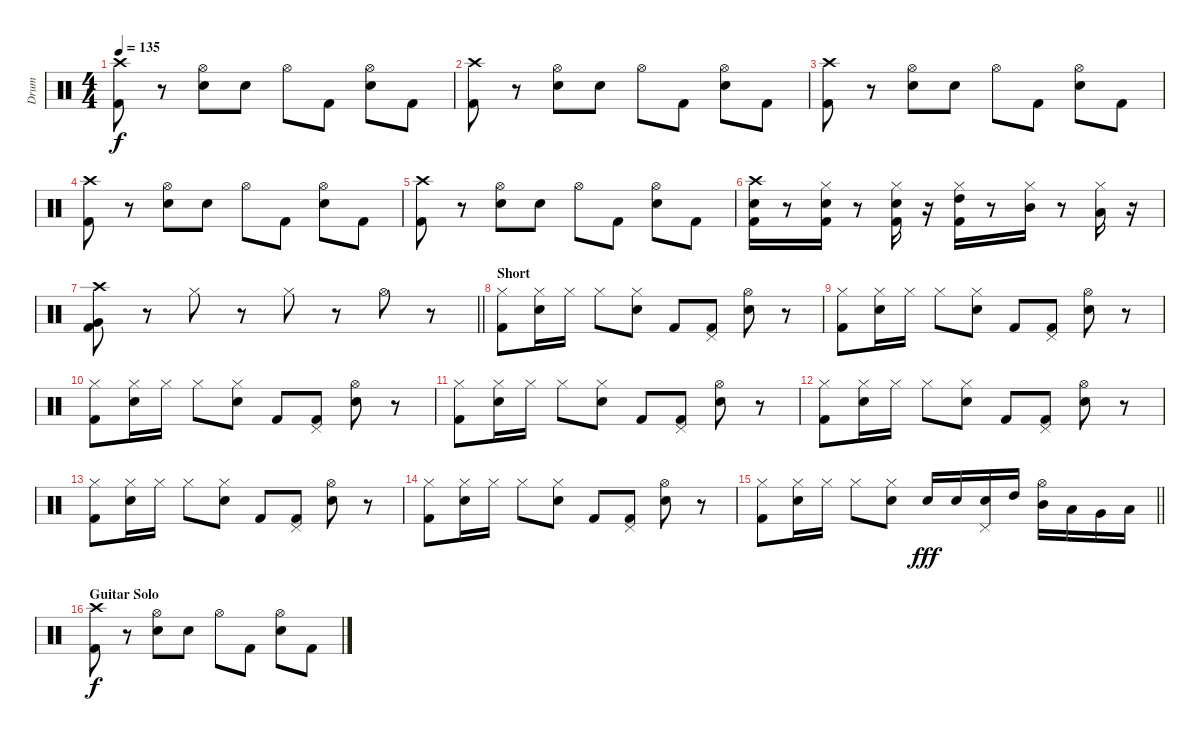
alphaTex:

\track ("Drum" "Drum") {instrument percussion}
\staff {score}
\articulation defaults
\ts (4 4)
\tempo 135
\clef neutral
\ks c
("Crash high (hit)" "Kick (hit) 2").8{dy f} r.8 ("Electric Snare (hit)" "Hi-Hat (open)").8 "Electric Snare (hit)".8 "Hi-Hat (open)".8 "Kick (hit) 2".8 ("Electric Snare (hit)" "Hi-Hat (open)").8 "Kick (hit) 2".8 |
("Crash high (hit)" "Kick (hit) 2").8 r.8 ("Electric Snare (hit)" "Hi-Hat (open)").8 "Electric Snare (hit)".8 "Hi-Hat (open)".8 "Kick (hit) 2".8 ("Electric Snare (hit)" "Hi-Hat (open)").8 "Kick (hit) 2".8 |
("Crash high (hit)" "Kick (hit) 2").8 r.8 ("Electric Snare (hit)" "Hi-Hat (open)").8 "Electric Snare (hit)".8 "Hi-Hat (open)".8 "Kick (hit) 2".8 ("Electric Snare (hit)" "Hi-Hat (open)").8 "Kick (hit) 2".8 |
("Crash high (hit)" "Kick (hit) 2").8 r.8 ("Electric Snare (hit)" "Hi-Hat (open)").8 "Electric Snare (hit)".8 "Hi-Hat (open)".8 "Kick (hit) 2".8 ("Electric Snare (hit)" "Hi-Hat (open)").8 "Kick (hit) 2".8 |
("Crash high (hit)" "Kick (hit) 2").8 r.8 ("Electric Snare (hit)" "Hi-Hat (open)").8 "Electric Snare (hit)".8 "Hi-Hat (open)".8 "Kick (hit) 2".8 ("Electric Snare (hit)" "Hi-Hat (open)").8 "Kick (hit) 2".8 |
("Electric Snare (hit)" "Crash high (hit)" "Kick (hit) 2").16 r.8 ("Electric Snare (hit)" "Hi-Hat (closed)" "Kick (hit) 2").16 r.8 ("Electric Snare (hit)" "Hi-Hat (closed)" "Kick (hit) 2").16 r.16 ("Hi-Hat (closed)" "High Tom (hit)" "Kick (hit) 2").16 r.8 ("Mid Tom (hit)" "Hi-Hat (closed)").16 r.8 ("Hi-Hat (closed)" "Low Tom (hit)").16 r.16 |
\barLineRight lightlight
("Crash high (hit)" "Very Low Tom (hit)" "Kick (hit) 2").8 r.8 "Hi-Hat (closed)".8 r.8 "Hi-Hat (closed)".8 r.8 "Hi-Hat (open)".8 r.8 |
\section ("" "Short")
("Hi-Hat (closed)" "Kick (hit) 2").8 ("Electric Snare (hit)" "Hi-Hat (closed)").16 "Hi-Hat (closed)".16 "Hi-Hat (closed)".8 ("Electric Snare (hit)" "Hi-Hat (closed)").8 "Kick (hit) 2".8 ("Pedal Hi-Hat (hit)" "Kick (hit) 2").8 ("Electric Snare (hit)" "Hi-Hat (open)").8 r.8 |
("Hi-Hat (closed)" "Kick (hit) 2").8 ("Electric Snare (hit)" "Hi-Hat (closed)").16 "Hi-Hat (closed)".16 "Hi-Hat (closed)".8 ("Electric Snare (hit)" "Hi-Hat (closed)").8 "Kick (hit) 2".8 ("Pedal Hi-Hat (hit)" "Kick (hit) 2").8 ("Electric Snare (hit)" "Hi-Hat (open)").8 r.8 |
("Hi-Hat (closed)" "Kick (hit) 2").8 ("Electric Snare (hit)" "Hi-Hat (closed)").16 "Hi-Hat (closed)".16 "Hi-Hat (closed)".8 ("Electric Snare (hit)" "Hi-Hat (closed)").8 "Kick (hit) 2".8 ("Pedal Hi-Hat (hit)" "Kick (hit) 2").8 ("Electric Snare (hit)" "Hi-Hat (open)").8 r.8 |
("Hi-Hat (closed)" "Kick (hit) 2").8 ("Electric Snare (hit)" "Hi-Hat (closed)").16 "Hi-Hat (closed)".16 "Hi-Hat (closed)".8 ("Electric Snare (hit)" "Hi-Hat (closed)").8 "Kick (hit) 2".8 ("Pedal Hi-Hat (hit)" "Kick (hit) 2").8 ("Electric Snare (hit)" "Hi-Hat (open)").8 r.8 |
("Hi-Hat (closed)" "Kick (hit) 2").8 ("Electric Snare (hit)" "Hi-Hat (closed)").16 "Hi-Hat (closed)".16 "Hi-Hat (closed)".8 ("Electric Snare (hit)" "Hi-Hat (closed)").8 "Kick (hit) 2".8 ("Pedal Hi-Hat (hit)" "Kick (hit) 2").8 ("Electric Snare (hit)" "Hi-Hat (open)").8 r.8 |
("Hi-Hat (closed)" "Kick (hit) 2").8 ("Electric Snare (hit)" "Hi-Hat (closed)").16 "Hi-Hat (closed)".16 "Hi-Hat (closed)".8 ("Electric Snare (hit)" "Hi-Hat (closed)").8 "Kick (hit) 2".8 ("Pedal Hi-Hat (hit)" "Kick (hit) 2").8 ("Electric Snare (hit)" "Hi-Hat (open)").8 r.8 |
("Hi-Hat (closed)" "Kick (hit) 2").8 ("Electric Snare (hit)" "Hi-Hat (closed)").16 "Hi-Hat (closed)".16 "Hi-Hat (closed)".8 ("Electric Snare (hit)" "Hi-Hat (closed)").8 "Kick (hit) 2".8 ("Pedal Hi-Hat (hit)" "Kick (hit) 2").8 ("Electric Snare (hit)" "Hi-Hat (open)").8 r.8 |
\barLineRight lightlight
("Hi-Hat (closed)" "Kick (hit) 2").8 ("Electric Snare (hit)" "Hi-Hat (closed)").16 "Hi-Hat (closed)".16 "Hi-Hat (closed)".8 ("Electric Snare (hit)" "Hi-Hat (closed)").8 "Electric Snare (hit)".16{dy fff} "Electric Snare (hit)".16 ("Electric Snare (hit)" "Pedal Hi-Hat (hit)").16 "High Tom (hit)".16 ("Mid Tom (hit)" "Hi-Hat (open)").16 "Low Tom (hit)".16 "Very Low Tom (hit)".16 "Low Floor Tom (hit)".16 |
\section ("" "Guitar Solo")
("Crash high (hit)" "Kick (hit) 2").8{dy f} r.8 ("Electric Snare (hit)" "Hi-Hat (open)").8 "Electric Snare (hit)".8 "Hi-Hat (open)".8 "Kick (hit) 2".8 ("Electric Snare (hit)" "Hi-Hat (open)").8 "Kick (hit) 2".8
